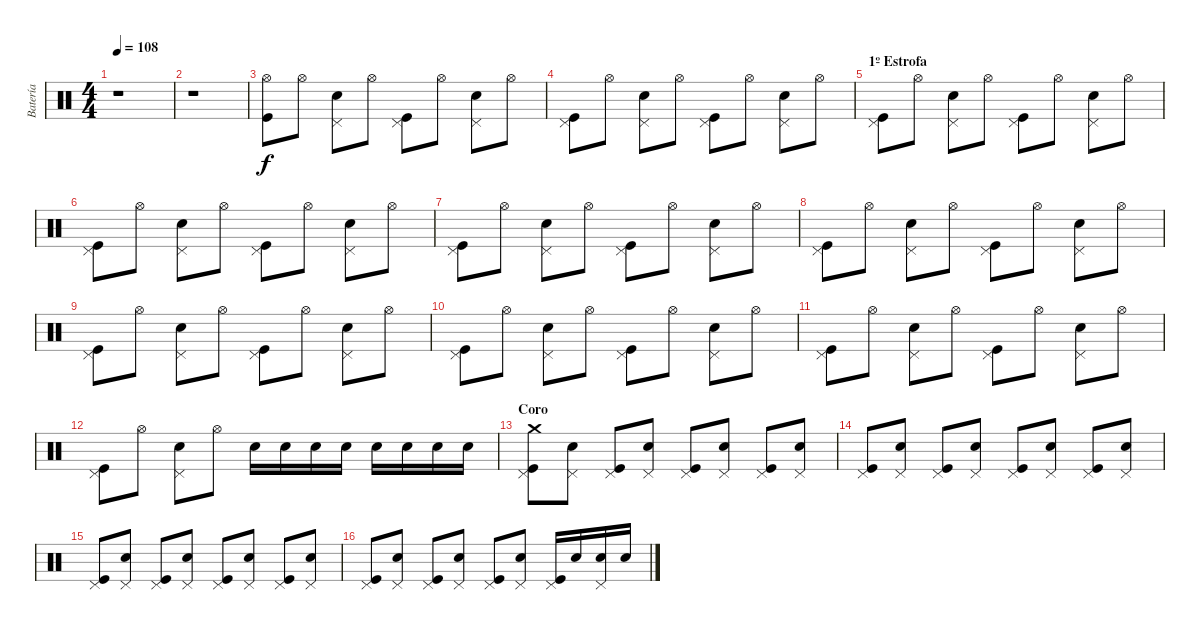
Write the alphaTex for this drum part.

\track ("Batería" "Batería") {instrument percussion}
\staff {score}
\articulation defaults
\ts (4 4)
\tempo 108
\clef neutral
\ks c
r.1{dy f} |
r.1 |
("Hi-Hat (open)" "Kick (hit)").8 "Hi-Hat (open)".8 ("Pedal Hi-Hat (hit)" "Electric Snare (hit)").8 "Hi-Hat (open)".8 ("Pedal Hi-Hat (hit)" "Kick (hit)").8 "Hi-Hat (open)".8 ("Pedal Hi-Hat (hit)" "Electric Snare (hit)").8 "Hi-Hat (open)".8 |
("Pedal Hi-Hat (hit)" "Kick (hit)").8 "Hi-Hat (open)".8 ("Pedal Hi-Hat (hit)" "Electric Snare (hit)").8 "Hi-Hat (open)".8 ("Pedal Hi-Hat (hit)" "Kick (hit)").8 "Hi-Hat (open)".8 ("Pedal Hi-Hat (hit)" "Electric Snare (hit)").8 "Hi-Hat (open)".8 |
\section ("" "1º Estrofa")
("Pedal Hi-Hat (hit)" "Kick (hit)").8 "Hi-Hat (open)".8 ("Pedal Hi-Hat (hit)" "Electric Snare (hit)").8 "Hi-Hat (open)".8 ("Pedal Hi-Hat (hit)" "Kick (hit)").8 "Hi-Hat (open)".8 ("Pedal Hi-Hat (hit)" "Electric Snare (hit)").8 "Hi-Hat (open)".8 |
("Pedal Hi-Hat (hit)" "Kick (hit)").8 "Hi-Hat (open)".8 ("Pedal Hi-Hat (hit)" "Electric Snare (hit)").8 "Hi-Hat (open)".8 ("Pedal Hi-Hat (hit)" "Kick (hit)").8 "Hi-Hat (open)".8 ("Pedal Hi-Hat (hit)" "Electric Snare (hit)").8 "Hi-Hat (open)".8 |
("Pedal Hi-Hat (hit)" "Kick (hit)").8 "Hi-Hat (open)".8 ("Pedal Hi-Hat (hit)" "Electric Snare (hit)").8 "Hi-Hat (open)".8 ("Pedal Hi-Hat (hit)" "Kick (hit)").8 "Hi-Hat (open)".8 ("Pedal Hi-Hat (hit)" "Electric Snare (hit)").8 "Hi-Hat (open)".8 |
("Pedal Hi-Hat (hit)" "Kick (hit)").8 "Hi-Hat (open)".8 ("Pedal Hi-Hat (hit)" "Electric Snare (hit)").8 "Hi-Hat (open)".8 ("Pedal Hi-Hat (hit)" "Kick (hit)").8 "Hi-Hat (open)".8 ("Pedal Hi-Hat (hit)" "Electric Snare (hit)").8 "Hi-Hat (open)".8 |
("Pedal Hi-Hat (hit)" "Kick (hit)").8 "Hi-Hat (open)".8 ("Pedal Hi-Hat (hit)" "Electric Snare (hit)").8 "Hi-Hat (open)".8 ("Pedal Hi-Hat (hit)" "Kick (hit)").8 "Hi-Hat (open)".8 ("Pedal Hi-Hat (hit)" "Electric Snare (hit)").8 "Hi-Hat (open)".8 |
("Pedal Hi-Hat (hit)" "Kick (hit)").8 "Hi-Hat (open)".8 ("Pedal Hi-Hat (hit)" "Electric Snare (hit)").8 "Hi-Hat (open)".8 ("Pedal Hi-Hat (hit)" "Kick (hit)").8 "Hi-Hat (open)".8 ("Pedal Hi-Hat (hit)" "Electric Snare (hit)").8 "Hi-Hat (open)".8 |
("Pedal Hi-Hat (hit)" "Kick (hit)").8 "Hi-Hat (open)".8 ("Pedal Hi-Hat (hit)" "Electric Snare (hit)").8 "Hi-Hat (open)".8 ("Pedal Hi-Hat (hit)" "Kick (hit)").8 "Hi-Hat (open)".8 ("Pedal Hi-Hat (hit)" "Electric Snare (hit)").8 "Hi-Hat (open)".8 |
("Pedal Hi-Hat (hit)" "Kick (hit)").8 "Hi-Hat (open)".8 ("Pedal Hi-Hat (hit)" "Electric Snare (hit)").8 "Hi-Hat (open)".8 "Electric Snare (hit)".16 "Electric Snare (hit)".16 "Electric Snare (hit)".16 "Electric Snare (hit)".16 "Electric Snare (hit)".16 "Electric Snare (hit)".16 "Electric Snare (hit)".16 "Electric Snare (hit)".16 |
\section ("" "Coro")
("Pedal Hi-Hat (hit)" "Crash medium (hit)" "Kick (hit)").8 ("Pedal Hi-Hat (hit)" "Electric Snare (hit)").8 ("Pedal Hi-Hat (hit)" "Kick (hit)").8 ("Pedal Hi-Hat (hit)" "Electric Snare (hit)").8 ("Pedal Hi-Hat (hit)" "Kick (hit)").8 ("Pedal Hi-Hat (hit)" "Electric Snare (hit)").8 ("Pedal Hi-Hat (hit)" "Kick (hit)").8 ("Pedal Hi-Hat (hit)" "Electric Snare (hit)").8 |
("Pedal Hi-Hat (hit)" "Kick (hit)").8 ("Pedal Hi-Hat (hit)" "Electric Snare (hit)").8 ("Pedal Hi-Hat (hit)" "Kick (hit)").8 ("Pedal Hi-Hat (hit)" "Electric Snare (hit)").8 ("Pedal Hi-Hat (hit)" "Kick (hit)").8 ("Pedal Hi-Hat (hit)" "Electric Snare (hit)").8 ("Pedal Hi-Hat (hit)" "Kick (hit)").8 ("Pedal Hi-Hat (hit)" "Electric Snare (hit)").8 |
("Pedal Hi-Hat (hit)" "Kick (hit)").8 ("Pedal Hi-Hat (hit)" "Electric Snare (hit)").8 ("Pedal Hi-Hat (hit)" "Kick (hit)").8 ("Pedal Hi-Hat (hit)" "Electric Snare (hit)").8 ("Pedal Hi-Hat (hit)" "Kick (hit)").8 ("Pedal Hi-Hat (hit)" "Electric Snare (hit)").8 ("Pedal Hi-Hat (hit)" "Kick (hit)").8 ("Pedal Hi-Hat (hit)" "Electric Snare (hit)").8 |
("Pedal Hi-Hat (hit)" "Kick (hit)").8 ("Pedal Hi-Hat (hit)" "Electric Snare (hit)").8 ("Pedal Hi-Hat (hit)" "Kick (hit)").8 ("Pedal Hi-Hat (hit)" "Electric Snare (hit)").8 ("Pedal Hi-Hat (hit)" "Kick (hit)").8 ("Pedal Hi-Hat (hit)" "Electric Snare (hit)").8 ("Pedal Hi-Hat (hit)" "Kick (hit)").16 "Electric Snare (hit)".16 ("Pedal Hi-Hat (hit)" "Electric Snare (hit)").16 "Electric Snare (hit)".16
